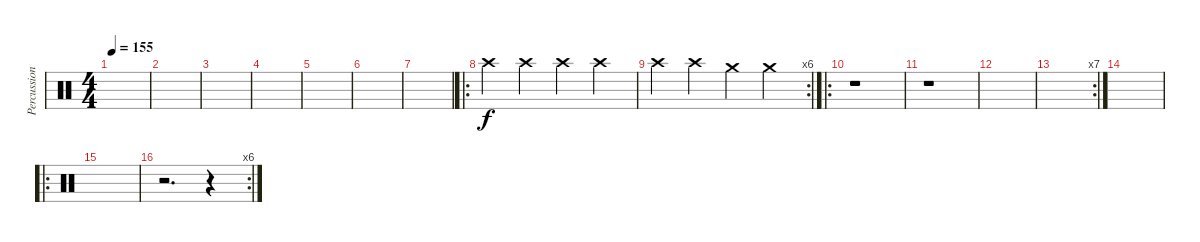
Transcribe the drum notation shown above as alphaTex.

\track ("Percussion" "Percussion") {instrument percussion}
\staff {score}
\articulation defaults
\ts (4 4)
\tempo 155
\clef neutral
\ks c
|
|
|
|
|
|
|
\ro "Crash high (hit)".4 "Crash high (hit)".4 "Crash high (hit)".4 "Crash high (hit)".4
|
\rc 6 "Crash high (hit)".4 "Crash high (hit)".4 "Crash medium (hit)".4 "Crash medium (hit)".4
|
\ro
r.1 |
r.1 |
|
\rc 7
|
|
\ro
|
\rc 6
r.2{d} r.4
